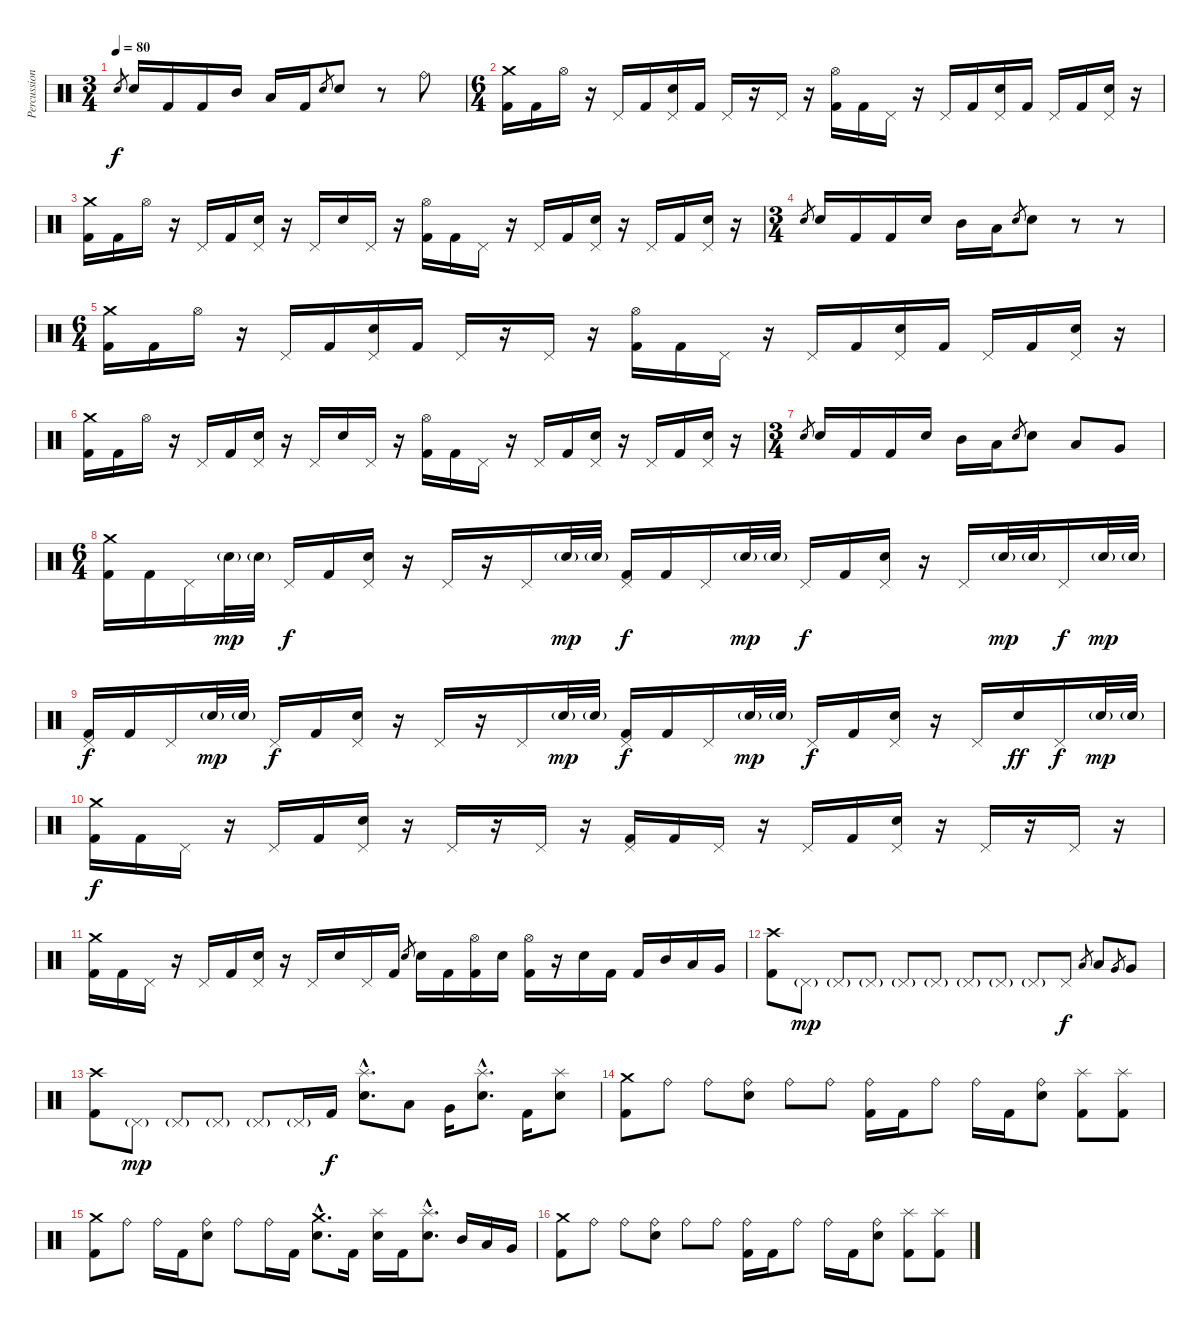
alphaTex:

\track ("Percussion" "Percussion") {instrument percussion}
\staff {score}
\articulation defaults
\ts (3 4)
\tempo 80
\clef neutral
\ks c "Electric Snare (hit)".8{gr dy f} "Electric Snare (hit)".16 "Kick (hit) 2".16 "Kick (hit) 2".16 "Mid Tom (hit)".16 "Low Tom (hit)".16 "Kick (hit) 2".16 "Electric Snare (hit)".8{gr} "Electric Snare (hit)".8
r.8 "Ride (bell)".8 |
\ts (6 4)
("Crash medium (hit)" "Kick (hit) 2").16 "Kick (hit) 2".16 "Hi-Hat (open)".16 r.16 "Pedal Hi-Hat (hit)".16 "Kick (hit) 2".16 ("Pedal Hi-Hat (hit)" "Electric Snare (hit)").16 "Kick (hit) 2".16 "Pedal Hi-Hat (hit)".16 r.16 "Pedal Hi-Hat (hit)".16 r.16 ("Hi-Hat (open)" "Kick (hit) 2").16 "Kick (hit) 2".16 "Pedal Hi-Hat (hit)".16 r.16 "Pedal Hi-Hat (hit)".16 "Kick (hit) 2".16 ("Pedal Hi-Hat (hit)" "Electric Snare (hit)").16 "Kick (hit) 2".16 "Pedal Hi-Hat (hit)".16 "Kick (hit) 2".16 ("Pedal Hi-Hat (hit)" "Electric Snare (hit)").16 r.16 |
("Crash medium (hit)" "Kick (hit) 2").16 "Kick (hit) 2".16 "Hi-Hat (open)".16 r.16 "Pedal Hi-Hat (hit)".16 "Kick (hit) 2".16 ("Pedal Hi-Hat (hit)" "Electric Snare (hit)").16 r.16 "Pedal Hi-Hat (hit)".16 "Electric Snare (hit)".16 "Pedal Hi-Hat (hit)".16 r.16 ("Hi-Hat (open)" "Kick (hit) 2").16 "Kick (hit) 2".16 "Pedal Hi-Hat (hit)".16 r.16 "Pedal Hi-Hat (hit)".16 "Kick (hit) 2".16 ("Pedal Hi-Hat (hit)" "Electric Snare (hit)").16 r.16 "Pedal Hi-Hat (hit)".16 "Kick (hit) 2".16 ("Pedal Hi-Hat (hit)" "Electric Snare (hit)").16 r.16 |
\ts (3 4)
"Electric Snare (hit)".8{gr} "Electric Snare (hit)".16 "Kick (hit) 2".16 "Kick (hit) 2".16 "Electric Snare (hit)".16 "Mid Tom (hit)".16 "Low Tom (hit)".16 "Electric Snare (hit)".8{gr} "Electric Snare (hit)".8 r.8 r.8 |
\ts (6 4)
("Crash medium (hit)" "Kick (hit) 2").16 "Kick (hit) 2".16 "Hi-Hat (open)".16 r.16 "Pedal Hi-Hat (hit)".16 "Kick (hit) 2".16 ("Pedal Hi-Hat (hit)" "Electric Snare (hit)").16 "Kick (hit) 2".16 "Pedal Hi-Hat (hit)".16 r.16 "Pedal Hi-Hat (hit)".16 r.16 ("Hi-Hat (open)" "Kick (hit) 2").16 "Kick (hit) 2".16 "Pedal Hi-Hat (hit)".16 r.16 "Pedal Hi-Hat (hit)".16 "Kick (hit) 2".16 ("Pedal Hi-Hat (hit)" "Electric Snare (hit)").16 "Kick (hit) 2".16 "Pedal Hi-Hat (hit)".16 "Kick (hit) 2".16 ("Pedal Hi-Hat (hit)" "Electric Snare (hit)").16 r.16 |
("Crash medium (hit)" "Kick (hit) 2").16 "Kick (hit) 2".16 "Hi-Hat (open)".16 r.16 "Pedal Hi-Hat (hit)".16 "Kick (hit) 2".16 ("Pedal Hi-Hat (hit)" "Electric Snare (hit)").16 r.16 "Pedal Hi-Hat (hit)".16 "Electric Snare (hit)".16 "Pedal Hi-Hat (hit)".16 r.16 ("Hi-Hat (open)" "Kick (hit) 2").16 "Kick (hit) 2".16 "Pedal Hi-Hat (hit)".16 r.16 "Pedal Hi-Hat (hit)".16 "Kick (hit) 2".16 ("Pedal Hi-Hat (hit)" "Electric Snare (hit)").16 r.16 "Pedal Hi-Hat (hit)".16 "Kick (hit) 2".16 ("Pedal Hi-Hat (hit)" "Electric Snare (hit)").16 r.16 |
\ts (3 4)
"Electric Snare (hit)".8{gr} "Electric Snare (hit)".16 "Kick (hit) 2".16 "Kick (hit) 2".16 "Electric Snare (hit)".16 "Mid Tom (hit)".16 "Low Tom (hit)".16 "Electric Snare (hit)".8{gr} "Electric Snare (hit)".8 "Low Tom (hit)".8 "Very Low Tom (hit)".8 |
\ts (6 4)
("Crash medium (hit)" "Kick (hit) 2").16 "Kick (hit) 2".16 "Pedal Hi-Hat (hit)".16 "Electric Snare (hit)"{g}.32{dy mp} "Electric Snare (hit)"{g}.32 "Pedal Hi-Hat (hit)".16{dy f} "Kick (hit) 2".16 ("Pedal Hi-Hat (hit)" "Electric Snare (hit)").16 r.16 "Pedal Hi-Hat (hit)".16 r.16 "Pedal Hi-Hat (hit)".16 "Electric Snare (hit)"{g}.32{dy mp} "Electric Snare (hit)"{g}.32 ("Pedal Hi-Hat (hit)" "Kick (hit) 2").16{dy f} "Kick (hit) 2".16 "Pedal Hi-Hat (hit)".16 "Electric Snare (hit)"{g}.32{dy mp} "Electric Snare (hit)"{g}.32 "Pedal Hi-Hat (hit)".16{dy f} "Kick (hit) 2".16 ("Pedal Hi-Hat (hit)" "Electric Snare (hit)").16 r.16 "Pedal Hi-Hat (hit)".16 "Electric Snare (hit)"{g}.32{dy mp} "Electric Snare (hit)"{g}.32 "Pedal Hi-Hat (hit)".16{dy f} "Electric Snare (hit)"{g}.32{dy mp} "Electric Snare (hit)"{g}.32 |
("Pedal Hi-Hat (hit)" "Kick (hit) 2").16{dy f} "Kick (hit) 2".16 "Pedal Hi-Hat (hit)".16 "Electric Snare (hit)"{g}.32{dy mp} "Electric Snare (hit)"{g}.32 "Pedal Hi-Hat (hit)".16{dy f} "Kick (hit) 2".16 ("Pedal Hi-Hat (hit)" "Electric Snare (hit)").16 r.16 "Pedal Hi-Hat (hit)".16 r.16 "Pedal Hi-Hat (hit)".16 "Electric Snare (hit)"{g}.32{dy mp} "Electric Snare (hit)"{g}.32 ("Pedal Hi-Hat (hit)" "Kick (hit) 2").16{dy f} "Kick (hit) 2".16 "Pedal Hi-Hat (hit)".16 "Electric Snare (hit)"{g}.32{dy mp} "Electric Snare (hit)"{g}.32 "Pedal Hi-Hat (hit)".16{dy f} "Kick (hit) 2".16 ("Pedal Hi-Hat (hit)" "Electric Snare (hit)").16 r.16 "Pedal Hi-Hat (hit)".16 "Electric Snare (hit)".16{dy ff} "Pedal Hi-Hat (hit)".16{dy f} "Electric Snare (hit)"{g}.32{dy mp} "Electric Snare (hit)"{g}.32 |
("Crash medium (hit)" "Kick (hit) 2").16{dy f} "Kick (hit) 2".16 "Pedal Hi-Hat (hit)".16 r.16 "Pedal Hi-Hat (hit)".16 "Kick (hit) 2".16 ("Pedal Hi-Hat (hit)" "Electric Snare (hit)").16 r.16 "Pedal Hi-Hat (hit)".16 r.16 "Pedal Hi-Hat (hit)".16 r.16 ("Pedal Hi-Hat (hit)" "Kick (hit) 2").16 "Kick (hit) 2".16 "Pedal Hi-Hat (hit)".16 r.16 "Pedal Hi-Hat (hit)".16 "Kick (hit) 2".16 ("Pedal Hi-Hat (hit)" "Electric Snare (hit)").16 r.16 "Pedal Hi-Hat (hit)".16 r.16 "Pedal Hi-Hat (hit)".16 r.16 |
("Crash medium (hit)" "Kick (hit) 2").16 "Kick (hit) 2".16 "Pedal Hi-Hat (hit)".16 r.16 "Pedal Hi-Hat (hit)".16 "Kick (hit) 2".16 ("Pedal Hi-Hat (hit)" "Electric Snare (hit)").16 r.16 "Pedal Hi-Hat (hit)".16 "Electric Snare (hit)".16 "Pedal Hi-Hat (hit)".16 "Kick (hit) 2".16 "Electric Snare (hit)".8{gr} "Electric Snare (hit)".16 "Kick (hit) 2".16 ("Hi-Hat (open)" "Kick (hit) 2").16 "Electric Snare (hit)".16 ("Hi-Hat (open)" "Kick (hit) 2").16 r.16 "Electric Snare (hit)".16 "Kick (hit) 2".16 "Kick (hit) 2".16 "Mid Tom (hit)".16 "Low Tom (hit)".16 "Very Low Tom (hit)".16 |
("Crash high (hit)" "Kick (hit) 2").8 "Pedal Hi-Hat (hit)"{g}.8{dy mp} "Pedal Hi-Hat (hit)"{g}.8 "Pedal Hi-Hat (hit)"{g}.8 "Pedal Hi-Hat (hit)"{g}.8 "Pedal Hi-Hat (hit)"{g}.8 "Pedal Hi-Hat (hit)"{g}.8 "Pedal Hi-Hat (hit)"{g}.8 "Pedal Hi-Hat (hit)"{g}.8 "Pedal Hi-Hat (hit)".8{dy f} "Low Tom (hit)".8{gr} "Low Tom (hit)".8 "Very Low Tom (hit)".8{gr} "Very Low Tom (hit)".8 |
("Crash high (hit)" "Kick (hit) 2").8 "Pedal Hi-Hat (hit)"{g}.8{dy mp} "Pedal Hi-Hat (hit)"{g}.8 "Pedal Hi-Hat (hit)"{g}.8 "Pedal Hi-Hat (hit)"{g}.8 "Pedal Hi-Hat (hit)"{g}.16 "Kick (hit) 2".16{dy f} ("Splash (hit)"{hac} "Electric Snare (hit)"{hac}).8{d} "Low Tom (hit)".8 "Very Low Tom (hit)".16 ("Splash (hit)"{hac} "Electric Snare (hit)"{hac}).8{d} "Kick (hit) 2".16 ("Splash (hit)" "Electric Snare (hit)").8 |
("Crash medium (hit)" "Kick (hit) 2").8 "Ride (bell)".8 "Ride (bell)".8 ("Ride (bell)" "Electric Snare (hit)").8 "Ride (bell)".8 "Ride (bell)".8 ("Ride (bell)" "Kick (hit) 2").16 "Kick (hit) 2".16 "Ride (bell)".8 "Ride (bell)".16 "Kick (hit) 2".16 ("Ride (bell)" "Electric Snare (hit)").8 ("Splash (hit)" "Kick (hit) 2").8 ("Splash (hit)" "Kick (hit) 2").8 |
("Crash medium (hit)" "Kick (hit) 2").8 "Ride (bell)".8 "Ride (bell)".16 "Kick (hit) 2".16 ("Ride (bell)" "Electric Snare (hit)").8 "Ride (bell)".8 "Ride (bell)".16 "Kick (hit) 2".16 ("Crash medium (hit)"{hac} "Electric Snare (hit)"{hac}).8{d} "Kick (hit) 2".16 ("Splash (hit)" "Electric Snare (hit)").16 "Kick (hit) 2".16 ("Splash (hit)"{hac} "Electric Snare (hit)"{hac}).8{d} "Mid Tom (hit)".16 "Low Tom (hit)".16 "Very Low Tom (hit)".16 |
("Crash medium (hit)" "Kick (hit) 2").8 "Ride (bell)".8 "Ride (bell)".8 ("Ride (bell)" "Electric Snare (hit)").8 "Ride (bell)".8 "Ride (bell)".8 ("Ride (bell)" "Kick (hit) 2").16 "Kick (hit) 2".16 "Ride (bell)".8 "Ride (bell)".16 "Kick (hit) 2".16 ("Ride (bell)" "Electric Snare (hit)").8 ("Splash (hit)" "Kick (hit) 2").8 ("Splash (hit)" "Kick (hit) 2").8
